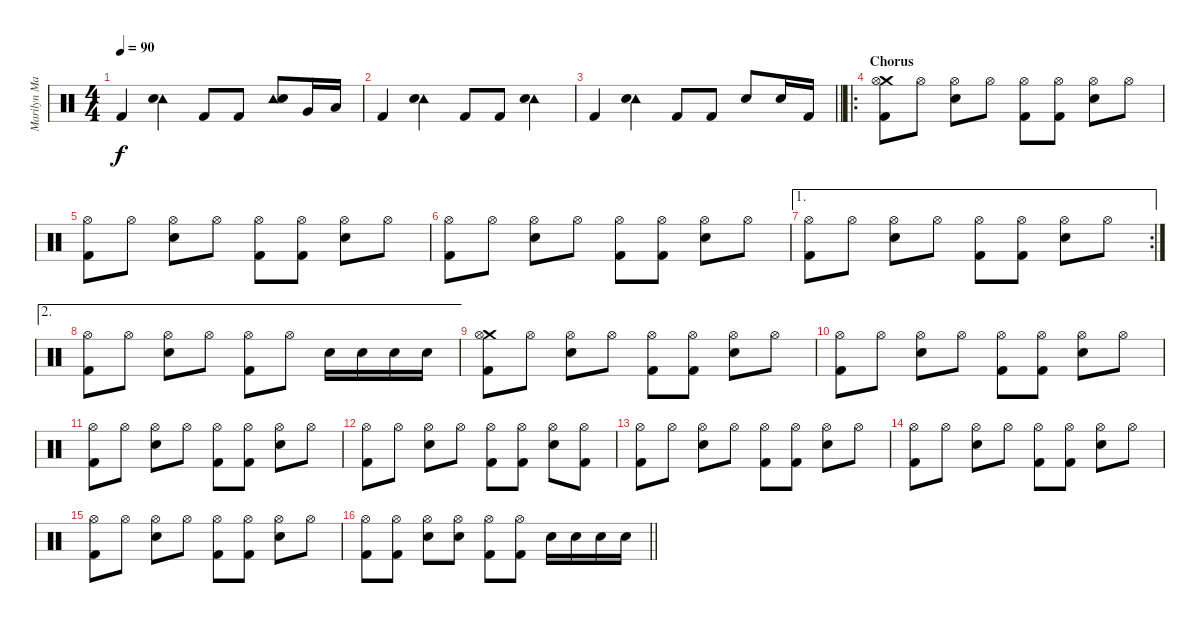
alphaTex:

\track ("Marilyn Manson" "Marilyn Ma") {instrument percussion}
\staff {score}
\articulation defaults
\ts (4 4)
\tempo 90
\clef neutral
\ks c "Kick (hit) 2".4{dy f}
("Tambourine (hit)" "Snare (hit) 2").4 "Kick (hit) 2".8 "Kick (hit) 2".8 ("Tambourine (hit)" "Snare (hit) 2").8 "Very Low Tom (hit)".16 "Low Floor Tom (hit)".16 |
"Kick (hit) 2".4 ("Tambourine (hit)" "Snare (hit) 2").4 "Kick (hit) 2".8 "Kick (hit) 2".8 ("Tambourine (hit)" "Snare (hit) 2").4 |
\barLineRight lightlight "Kick (hit) 2".4
("Tambourine (hit)" "Snare (hit) 2").4 "Kick (hit) 2".8 "Kick (hit) 2".8 "Snare (hit) 2".8 "Snare (hit) 2".16 "Kick (hit) 2".16 |
\ro
\section ("" "Chorus")
("Crash medium (hit)" "Hi-Hat (open)" "Kick (hit) 2").8{volume 13} "Hi-Hat (open)".8 ("Hi-Hat (open)" "Snare (hit) 2").8 "Hi-Hat (open)".8 ("Hi-Hat (open)" "Kick (hit) 2").8 ("Hi-Hat (open)" "Kick (hit) 2").8 ("Hi-Hat (open)" "Snare (hit) 2").8 "Hi-Hat (open)".8 |
("Hi-Hat (open)" "Kick (hit) 2").8 "Hi-Hat (open)".8 ("Hi-Hat (open)" "Snare (hit) 2").8 "Hi-Hat (open)".8 ("Hi-Hat (open)" "Kick (hit) 2").8 ("Hi-Hat (open)" "Kick (hit) 2").8 ("Hi-Hat (open)" "Snare (hit) 2").8 "Hi-Hat (open)".8 |
("Hi-Hat (open)" "Kick (hit) 2").8 "Hi-Hat (open)".8 ("Hi-Hat (open)" "Snare (hit) 2").8 "Hi-Hat (open)".8 ("Hi-Hat (open)" "Kick (hit) 2").8 ("Hi-Hat (open)" "Kick (hit) 2").8 ("Hi-Hat (open)" "Snare (hit) 2").8 "Hi-Hat (open)".8 |
\ae 1
\rc 2
("Hi-Hat (open)" "Kick (hit) 2").8 "Hi-Hat (open)".8 ("Hi-Hat (open)" "Snare (hit) 2").8 "Hi-Hat (open)".8 ("Hi-Hat (open)" "Kick (hit) 2").8 ("Hi-Hat (open)" "Kick (hit) 2").8 ("Hi-Hat (open)" "Snare (hit) 2").8 "Hi-Hat (open)".8 |
\ae 2
("Hi-Hat (open)" "Kick (hit) 2").8 "Hi-Hat (open)".8 ("Hi-Hat (open)" "Snare (hit) 2").8 "Hi-Hat (open)".8 ("Hi-Hat (open)" "Kick (hit) 2").8 "Hi-Hat (open)".8 "Snare (hit) 2".16 "Snare (hit) 2".16 "Snare (hit) 2".16 "Snare (hit) 2".16 |
("Crash medium (hit)" "Hi-Hat (open)" "Kick (hit) 2").8{volume 13} "Hi-Hat (open)".8 ("Hi-Hat (open)" "Snare (hit) 2").8 "Hi-Hat (open)".8 ("Hi-Hat (open)" "Kick (hit) 2").8 ("Hi-Hat (open)" "Kick (hit) 2").8 ("Hi-Hat (open)" "Snare (hit) 2").8 "Hi-Hat (open)".8 |
("Hi-Hat (open)" "Kick (hit) 2").8 "Hi-Hat (open)".8 ("Hi-Hat (open)" "Snare (hit) 2").8 "Hi-Hat (open)".8 ("Hi-Hat (open)" "Kick (hit) 2").8 ("Hi-Hat (open)" "Kick (hit) 2").8 ("Hi-Hat (open)" "Snare (hit) 2").8 "Hi-Hat (open)".8 |
("Hi-Hat (open)" "Kick (hit) 2").8 "Hi-Hat (open)".8 ("Hi-Hat (open)" "Snare (hit) 2").8 "Hi-Hat (open)".8 ("Hi-Hat (open)" "Kick (hit) 2").8 ("Hi-Hat (open)" "Kick (hit) 2").8 ("Hi-Hat (open)" "Snare (hit) 2").8 "Hi-Hat (open)".8 |
("Hi-Hat (open)" "Kick (hit) 2").8 "Hi-Hat (open)".8 ("Hi-Hat (open)" "Snare (hit) 2").8 "Hi-Hat (open)".8 ("Hi-Hat (open)" "Kick (hit) 2").8 ("Hi-Hat (open)" "Kick (hit) 2").8 ("Hi-Hat (open)" "Snare (hit) 2").8 ("Hi-Hat (open)" "Kick (hit) 2").8 |
("Hi-Hat (open)" "Kick (hit) 2").8 "Hi-Hat (open)".8 ("Hi-Hat (open)" "Snare (hit) 2").8 "Hi-Hat (open)".8 ("Hi-Hat (open)" "Kick (hit) 2").8 ("Hi-Hat (open)" "Kick (hit) 2").8 ("Hi-Hat (open)" "Snare (hit) 2").8 "Hi-Hat (open)".8 |
("Hi-Hat (open)" "Kick (hit) 2").8 "Hi-Hat (open)".8 ("Hi-Hat (open)" "Snare (hit) 2").8 "Hi-Hat (open)".8 ("Hi-Hat (open)" "Kick (hit) 2").8 ("Hi-Hat (open)" "Kick (hit) 2").8 ("Hi-Hat (open)" "Snare (hit) 2").8 "Hi-Hat (open)".8 |
("Hi-Hat (open)" "Kick (hit) 2").8 "Hi-Hat (open)".8 ("Hi-Hat (open)" "Snare (hit) 2").8 "Hi-Hat (open)".8 ("Hi-Hat (open)" "Kick (hit) 2").8 ("Hi-Hat (open)" "Kick (hit) 2").8 ("Hi-Hat (open)" "Snare (hit) 2").8 "Hi-Hat (open)".8 |
\barLineRight lightlight
("Hi-Hat (open)" "Kick (hit) 2").8 ("Hi-Hat (open)" "Kick (hit) 2").8 ("Hi-Hat (open)" "Snare (hit) 2").8 ("Hi-Hat (open)" "Snare (hit) 2").8 ("Hi-Hat (open)" "Kick (hit) 2").8 ("Hi-Hat (open)" "Kick (hit) 2").8 "Snare (hit) 2".16 "Snare (hit) 2".16 "Snare (hit) 2".16 "Snare (hit) 2".16
